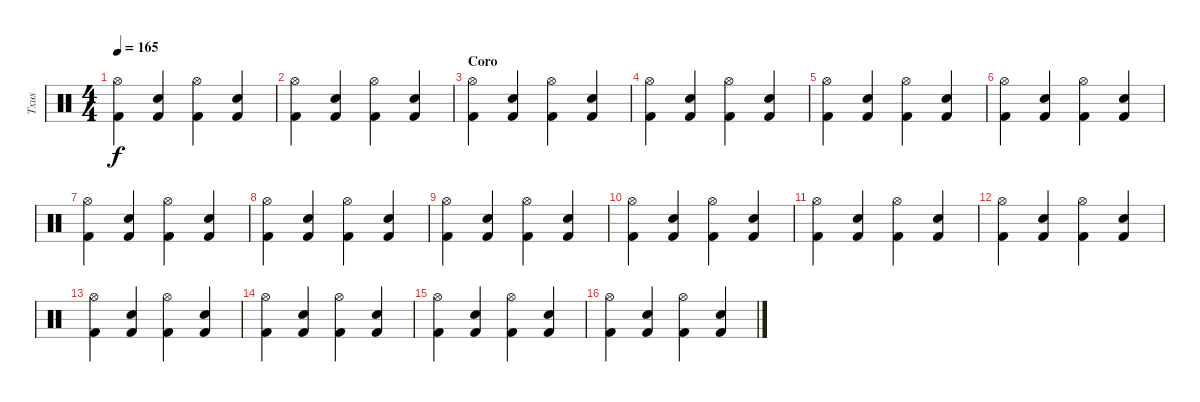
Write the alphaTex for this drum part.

\track ("Txus" "Txus") {instrument percussion}
\staff {score}
\articulation defaults
\ts (4 4)
\tempo 165
\clef neutral
\ks c
("Hi-Hat (open)" "Kick (hit) 2").4{dy f} ("Snare (hit) 2" "Kick (hit) 2").4 ("Hi-Hat (open)" "Kick (hit) 2").4 ("Snare (hit) 2" "Kick (hit) 2").4 |
("Hi-Hat (open)" "Kick (hit) 2").4 ("Snare (hit) 2" "Kick (hit) 2").4 ("Hi-Hat (open)" "Kick (hit) 2").4 ("Snare (hit) 2" "Kick (hit) 2").4 |
\section ("" "Coro")
("Hi-Hat (open)" "Kick (hit) 2").4 ("Snare (hit) 2" "Kick (hit) 2").4 ("Hi-Hat (open)" "Kick (hit) 2").4 ("Snare (hit) 2" "Kick (hit) 2").4 |
("Hi-Hat (open)" "Kick (hit) 2").4 ("Snare (hit) 2" "Kick (hit) 2").4 ("Hi-Hat (open)" "Kick (hit) 2").4 ("Snare (hit) 2" "Kick (hit) 2").4 |
("Hi-Hat (open)" "Kick (hit) 2").4 ("Snare (hit) 2" "Kick (hit) 2").4 ("Hi-Hat (open)" "Kick (hit) 2").4 ("Snare (hit) 2" "Kick (hit) 2").4 |
("Hi-Hat (open)" "Kick (hit) 2").4 ("Snare (hit) 2" "Kick (hit) 2").4 ("Hi-Hat (open)" "Kick (hit) 2").4 ("Snare (hit) 2" "Kick (hit) 2").4 |
("Hi-Hat (open)" "Kick (hit) 2").4 ("Snare (hit) 2" "Kick (hit) 2").4 ("Hi-Hat (open)" "Kick (hit) 2").4 ("Snare (hit) 2" "Kick (hit) 2").4 |
("Hi-Hat (open)" "Kick (hit) 2").4 ("Snare (hit) 2" "Kick (hit) 2").4 ("Hi-Hat (open)" "Kick (hit) 2").4 ("Snare (hit) 2" "Kick (hit) 2").4 |
("Hi-Hat (open)" "Kick (hit) 2").4 ("Snare (hit) 2" "Kick (hit) 2").4 ("Hi-Hat (open)" "Kick (hit) 2").4 ("Snare (hit) 2" "Kick (hit) 2").4 |
("Hi-Hat (open)" "Kick (hit) 2").4 ("Snare (hit) 2" "Kick (hit) 2").4 ("Hi-Hat (open)" "Kick (hit) 2").4 ("Snare (hit) 2" "Kick (hit) 2").4 |
("Hi-Hat (open)" "Kick (hit) 2").4 ("Snare (hit) 2" "Kick (hit) 2").4 ("Hi-Hat (open)" "Kick (hit) 2").4 ("Snare (hit) 2" "Kick (hit) 2").4 |
("Hi-Hat (open)" "Kick (hit) 2").4 ("Snare (hit) 2" "Kick (hit) 2").4 ("Hi-Hat (open)" "Kick (hit) 2").4 ("Snare (hit) 2" "Kick (hit) 2").4 |
("Hi-Hat (open)" "Kick (hit) 2").4 ("Snare (hit) 2" "Kick (hit) 2").4 ("Hi-Hat (open)" "Kick (hit) 2").4 ("Snare (hit) 2" "Kick (hit) 2").4 |
("Hi-Hat (open)" "Kick (hit) 2").4 ("Snare (hit) 2" "Kick (hit) 2").4 ("Hi-Hat (open)" "Kick (hit) 2").4 ("Snare (hit) 2" "Kick (hit) 2").4 |
("Hi-Hat (open)" "Kick (hit) 2").4 ("Snare (hit) 2" "Kick (hit) 2").4 ("Hi-Hat (open)" "Kick (hit) 2").4 ("Snare (hit) 2" "Kick (hit) 2").4 |
("Hi-Hat (open)" "Kick (hit) 2").4 ("Snare (hit) 2" "Kick (hit) 2").4 ("Hi-Hat (open)" "Kick (hit) 2").4 ("Snare (hit) 2" "Kick (hit) 2").4
